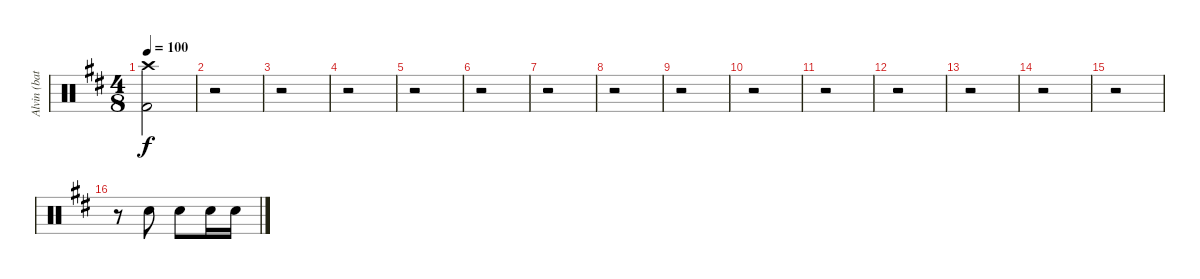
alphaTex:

\track ("Alvin (bateria)" "Alvin (bat") {instrument percussion}
\staff {score}
\articulation defaults
\ts (4 8)
\tempo 100
\clef neutral
\ks bminor
("Kick (hit) 2" "Crash high (hit)").2{dy f} |
r.2 |
r.2 |
r.2 |
r.2 |
r.2 |
r.2 |
r.2 |
r.2 |
r.2 |
r.2 |
r.2 |
r.2 |
r.2 |
r.2 |
r.8 "Electric Snare (hit)".8 "Electric Snare (hit)".8 "Electric Snare (hit)".16 "Electric Snare (hit)".16
